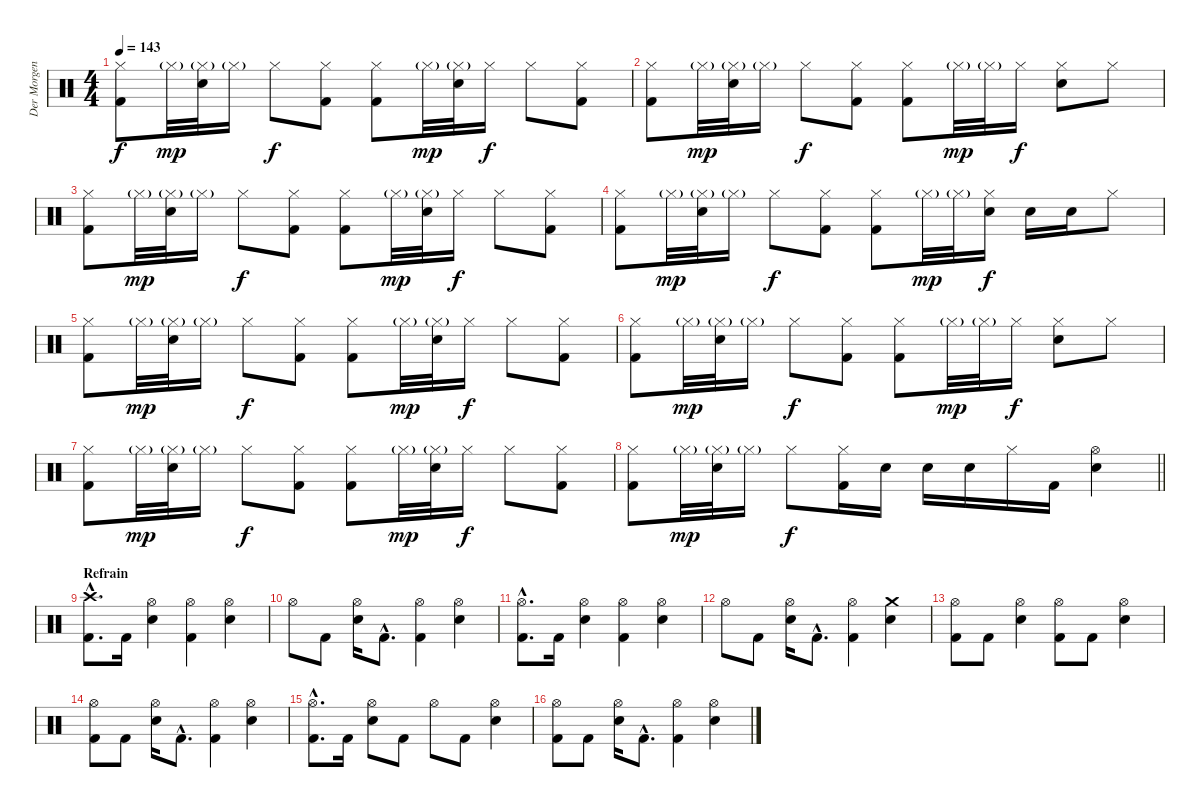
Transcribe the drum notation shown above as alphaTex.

\track ("Der Morgenstern" "Der Morgen") {instrument percussion}
\staff {score}
\articulation defaults
\ts (4 4)
\tempo 143
\clef neutral
\ks c
("Hi-Hat (closed)" "Kick (hit) 2").8{dy f} "Hi-Hat (closed)"{g}.32{dy mp} ("Hi-Hat (closed)"{g} "Electric Snare (hit)").32 "Hi-Hat (closed)"{g}.16 "Hi-Hat (closed)".8{dy f} ("Hi-Hat (closed)" "Kick (hit) 2").8 ("Hi-Hat (closed)" "Kick (hit) 2").8 "Hi-Hat (closed)"{g}.32{dy mp} ("Hi-Hat (closed)"{g} "Electric Snare (hit)").32 "Hi-Hat (closed)".16{dy f} "Hi-Hat (closed)".8 ("Hi-Hat (closed)" "Kick (hit) 2").8 |
("Hi-Hat (closed)" "Kick (hit) 2").8 "Hi-Hat (closed)"{g}.32{dy mp} ("Hi-Hat (closed)"{g} "Electric Snare (hit)").32 "Hi-Hat (closed)"{g}.16 "Hi-Hat (closed)".8{dy f} ("Hi-Hat (closed)" "Kick (hit) 2").8 ("Hi-Hat (closed)" "Kick (hit) 2").8 "Hi-Hat (closed)"{g}.32{dy mp} "Hi-Hat (closed)"{g}.32 "Hi-Hat (closed)".16{dy f} ("Hi-Hat (closed)" "Electric Snare (hit)").8 "Hi-Hat (closed)".8 |
("Hi-Hat (closed)" "Kick (hit) 2").8 "Hi-Hat (closed)"{g}.32{dy mp} ("Hi-Hat (closed)"{g} "Electric Snare (hit)").32 "Hi-Hat (closed)"{g}.16 "Hi-Hat (closed)".8{dy f} ("Hi-Hat (closed)" "Kick (hit) 2").8 ("Hi-Hat (closed)" "Kick (hit) 2").8 "Hi-Hat (closed)"{g}.32{dy mp} ("Hi-Hat (closed)"{g} "Electric Snare (hit)").32 "Hi-Hat (closed)".16{dy f} "Hi-Hat (closed)".8 ("Hi-Hat (closed)" "Kick (hit) 2").8 |
("Hi-Hat (closed)" "Kick (hit) 2").8 "Hi-Hat (closed)"{g}.32{dy mp} ("Hi-Hat (closed)"{g} "Electric Snare (hit)").32 "Hi-Hat (closed)"{g}.16 "Hi-Hat (closed)".8{dy f} ("Hi-Hat (closed)" "Kick (hit) 2").8 ("Hi-Hat (closed)" "Kick (hit) 2").8 "Hi-Hat (closed)"{g}.32{dy mp} "Hi-Hat (closed)"{g}.32 ("Hi-Hat (closed)" "Electric Snare (hit)").16{dy f} "Electric Snare (hit)".16 "Electric Snare (hit)".16 "Hi-Hat (closed)".8 |
("Hi-Hat (closed)" "Kick (hit) 2").8 "Hi-Hat (closed)"{g}.32{dy mp} ("Hi-Hat (closed)"{g} "Electric Snare (hit)").32 "Hi-Hat (closed)"{g}.16 "Hi-Hat (closed)".8{dy f} ("Hi-Hat (closed)" "Kick (hit) 2").8 ("Hi-Hat (closed)" "Kick (hit) 2").8 "Hi-Hat (closed)"{g}.32{dy mp} ("Hi-Hat (closed)"{g} "Electric Snare (hit)").32 "Hi-Hat (closed)".16{dy f} "Hi-Hat (closed)".8 ("Hi-Hat (closed)" "Kick (hit) 2").8 |
("Hi-Hat (closed)" "Kick (hit) 2").8 "Hi-Hat (closed)"{g}.32{dy mp} ("Hi-Hat (closed)"{g} "Electric Snare (hit)").32 "Hi-Hat (closed)"{g}.16 "Hi-Hat (closed)".8{dy f} ("Hi-Hat (closed)" "Kick (hit) 2").8 ("Hi-Hat (closed)" "Kick (hit) 2").8 "Hi-Hat (closed)"{g}.32{dy mp} "Hi-Hat (closed)"{g}.32 "Hi-Hat (closed)".16{dy f} ("Hi-Hat (closed)" "Electric Snare (hit)").8 "Hi-Hat (closed)".8 |
("Hi-Hat (closed)" "Kick (hit) 2").8 "Hi-Hat (closed)"{g}.32{dy mp} ("Hi-Hat (closed)"{g} "Electric Snare (hit)").32 "Hi-Hat (closed)"{g}.16 "Hi-Hat (closed)".8{dy f} ("Hi-Hat (closed)" "Kick (hit) 2").8 ("Hi-Hat (closed)" "Kick (hit) 2").8 "Hi-Hat (closed)"{g}.32{dy mp} ("Hi-Hat (closed)"{g} "Electric Snare (hit)").32 "Hi-Hat (closed)".16{dy f} "Hi-Hat (closed)".8 ("Hi-Hat (closed)" "Kick (hit) 2").8 |
\barLineRight lightlight
("Hi-Hat (closed)" "Kick (hit) 2").8 "Hi-Hat (closed)"{g}.32{dy mp} ("Hi-Hat (closed)"{g} "Electric Snare (hit)").32 "Hi-Hat (closed)"{g}.16 "Hi-Hat (closed)".8{dy f} ("Hi-Hat (closed)" "Kick (hit) 2").16 "Electric Snare (hit)".16 "Electric Snare (hit)".16 "Electric Snare (hit)".16 "Hi-Hat (closed)".16 "Kick (hit) 2".16 ("Hi-Hat (open)" "Electric Snare (hit)").4 |
\section ("" "Refrain")
("Crash high (hit)"{hac} "Kick (hit) 2"{hac}).8{d} "Kick (hit) 2".16 ("Hi-Hat (open)" "Electric Snare (hit)").4 ("Hi-Hat (open)" "Kick (hit) 2").4 ("Hi-Hat (open)" "Electric Snare (hit)").4 |
"Hi-Hat (open)".8 "Kick (hit) 2".8 ("Hi-Hat (open)" "Electric Snare (hit)").16 "Kick (hit) 2"{hac}.8{d} ("Hi-Hat (open)" "Kick (hit) 2").4 ("Hi-Hat (open)" "Electric Snare (hit)").4 |
("Hi-Hat (open)"{hac} "Kick (hit) 2"{hac}).8{d} "Kick (hit) 2".16 ("Hi-Hat (open)" "Electric Snare (hit)").4 ("Hi-Hat (open)" "Kick (hit) 2").4 ("Hi-Hat (open)" "Electric Snare (hit)").4 |
"Hi-Hat (open)".8 "Kick (hit) 2".8 ("Hi-Hat (open)" "Electric Snare (hit)").16 "Kick (hit) 2"{hac}.8{d} ("Hi-Hat (open)" "Kick (hit) 2").4 ("Crash medium (hit)" "Electric Snare (hit)").4 |
("Hi-Hat (open)" "Kick (hit) 2").8 "Kick (hit) 2".8 ("Hi-Hat (open)" "Electric Snare (hit)").4 ("Hi-Hat (open)" "Kick (hit) 2").8 "Kick (hit) 2".8 ("Hi-Hat (open)" "Electric Snare (hit)").4 |
("Hi-Hat (open)" "Kick (hit) 2").8 "Kick (hit) 2".8 ("Hi-Hat (open)" "Electric Snare (hit)").16 "Kick (hit) 2"{hac}.8{d} ("Hi-Hat (open)" "Kick (hit) 2").4 ("Hi-Hat (open)" "Electric Snare (hit)").4 |
("Hi-Hat (open)"{hac} "Kick (hit) 2"{hac}).8{d} "Kick (hit) 2".16 ("Hi-Hat (open)" "Electric Snare (hit)").8 "Kick (hit) 2".8 "Hi-Hat (open)".8 "Kick (hit) 2".8 ("Hi-Hat (open)" "Electric Snare (hit)").4 |
("Hi-Hat (open)" "Kick (hit) 2").8 "Kick (hit) 2".8 ("Hi-Hat (open)" "Electric Snare (hit)").16 "Kick (hit) 2"{hac}.8{d} ("Hi-Hat (open)" "Kick (hit) 2").4 ("Hi-Hat (open)" "Electric Snare (hit)").4
